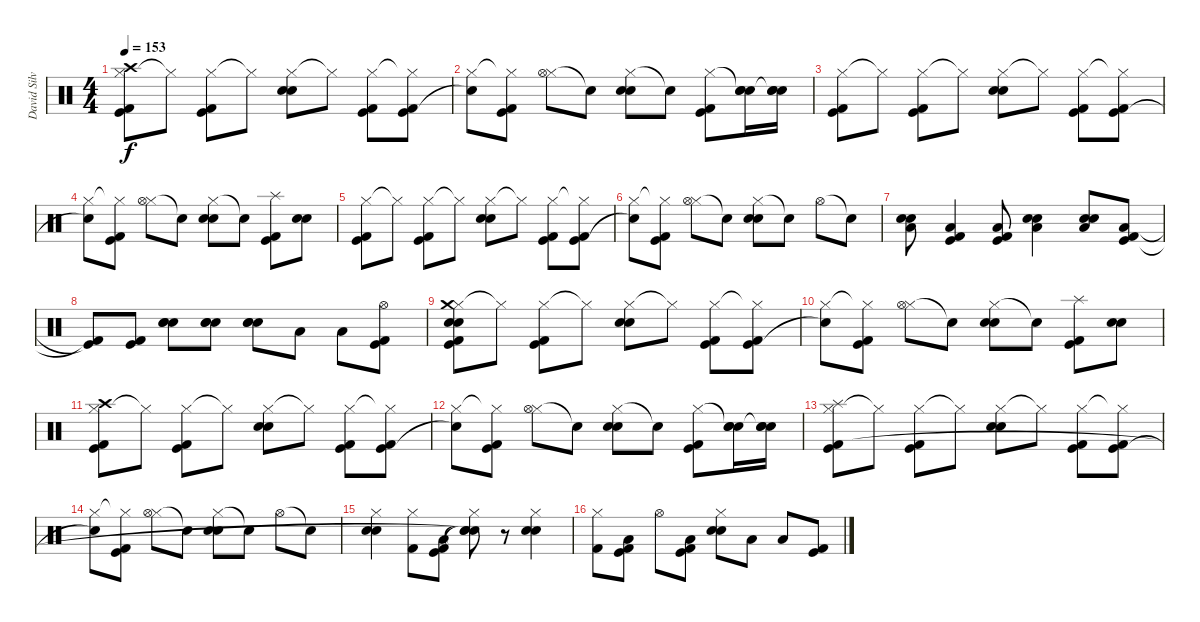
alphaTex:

\track ("David Silveria" "David Silv") {instrument percussion}
\staff {score}
\articulation defaults
\ts (4 4)
\tempo 153
\clef neutral
\ks c
("Hi-Hat (closed)" "Kick (hit)" "Crash high (hit)" "Kick (hit) 2").8{dy f} "Hi-Hat (closed)"{t}.8 ("Hi-Hat (closed)" "Kick (hit)" "Kick (hit) 2").8 "Hi-Hat (closed)"{t}.8 ("Hi-Hat (closed)" "Electric Snare (hit)" "Snare (hit) 2").8 "Hi-Hat (closed)"{t}.8 ("Hi-Hat (closed)" "Kick (hit)" "Kick (hit) 2").8 ("Hi-Hat (closed)"{t} "Kick (hit)" "Kick (hit) 2").8 |
("Hi-Hat (closed)" "Snare (hit)"{t}).8 ("Hi-Hat (closed)"{t} "Kick (hit)" "Kick (hit) 2").8 ("Hi-Hat (closed)" "Hi-Hat (open)").8 "Electric Snare (hit)"{t}.8 ("Hi-Hat (closed)" "Electric Snare (hit)" "Snare (hit) 2").8 "Snare (hit)"{t}.8 ("Hi-Hat (closed)" "Kick (hit)" "Kick (hit) 2").8 ("Snare (hit)"{t} "Electric Snare (hit)" "Snare (hit) 2").16 ("Snare (hit)"{t} "Electric Snare (hit)" "Snare (hit) 2").16 |
("Hi-Hat (closed)" "Kick (hit)" "Kick (hit) 2").8 "Hi-Hat (closed)"{t}.8 ("Hi-Hat (closed)" "Kick (hit)" "Kick (hit) 2").8 "Hi-Hat (closed)"{t}.8 ("Hi-Hat (closed)" "Electric Snare (hit)" "Snare (hit) 2").8 "Hi-Hat (closed)"{t}.8 ("Hi-Hat (closed)" "Kick (hit)" "Kick (hit) 2").8 ("Hi-Hat (closed)"{t} "Kick (hit)" "Kick (hit) 2").8 |
("Hi-Hat (closed)" "Snare (hit)"{t}).8 ("Hi-Hat (closed)"{t} "Kick (hit)" "Kick (hit) 2").8 ("Hi-Hat (closed)" "Hi-Hat (open)").8 "Electric Snare (hit)"{t}.8 ("Hi-Hat (closed)" "Electric Snare (hit)" "Snare (hit) 2").8 "Snare (hit)"{t}.8 ("Splash (hit)" "Kick (hit)" "Kick (hit) 2").8 ("Electric Snare (hit)" "Snare (hit) 2").8 |
("Hi-Hat (closed)" "Kick (hit)" "Kick (hit) 2").8 "Hi-Hat (closed)"{t}.8 ("Hi-Hat (closed)" "Kick (hit)" "Kick (hit) 2").8 "Hi-Hat (closed)"{t}.8 ("Hi-Hat (closed)" "Electric Snare (hit)" "Snare (hit) 2").8 "Hi-Hat (closed)"{t}.8 ("Hi-Hat (closed)" "Kick (hit)" "Kick (hit) 2").8 ("Hi-Hat (closed)"{t} "Kick (hit)" "Kick (hit) 2").8 |
("Hi-Hat (closed)" "Snare (hit)"{t}).8 ("Hi-Hat (closed)"{t} "Kick (hit)" "Kick (hit) 2").8 ("Hi-Hat (closed)" "Hi-Hat (open)").8 "Electric Snare (hit)"{t}.8 ("Hi-Hat (closed)" "Electric Snare (hit)" "Snare (hit) 2").8 "Snare (hit)"{t}.8 "Hi-Hat (open)".8 "Electric Snare (hit)"{t}.8 |
("Low Tom (hit)" "Electric Snare (hit)" "Snare (hit) 2").8 ("Low Floor Tom (hit)" "Kick (hit)" "Kick (hit) 2").4 ("Low Floor Tom (hit)" "Kick (hit)" "Kick (hit) 2").8 ("Low Tom (hit)" "Electric Snare (hit)" "Snare (hit) 2").4 ("Low Tom (hit)" "Electric Snare (hit)" "Snare (hit) 2").8 ("Low Floor Tom (hit)" "Kick (hit)" "Kick (hit) 2").8 |
("Kick (hit)"{t} "Kick (hit) 2"{t}).8 ("Kick (hit)" "Kick (hit) 2").8 ("Snare (hit) 2" "Electric Snare (hit)" "Snare (hit) 2").8 ("Snare (hit) 2" "Electric Snare (hit)" "Snare (hit) 2").8 ("Snare (hit) 2" "Electric Snare (hit)" "Snare (hit) 2").8 "Low Tom (hit)".8 "Low Floor Tom (hit)".8 ("Hi-Hat (open)" "Kick (hit) 2" "Kick (hit)").8 |
("Hi-Hat (closed)" "Kick (hit)" "Crash medium (hit)" "Kick (hit) 2" "Electric Snare (hit)" "Snare (hit) 2").8 "Hi-Hat (closed)"{t}.8 ("Hi-Hat (closed)" "Kick (hit)" "Kick (hit) 2").8 "Hi-Hat (closed)"{t}.8 ("Hi-Hat (closed)" "Electric Snare (hit)" "Snare (hit) 2").8 "Hi-Hat (closed)"{t}.8 ("Hi-Hat (closed)" "Kick (hit)" "Kick (hit) 2").8 ("Hi-Hat (closed)"{t} "Kick (hit)" "Kick (hit) 2").8 |
("Hi-Hat (closed)" "Snare (hit)"{t}).8 ("Hi-Hat (closed)"{t} "Kick (hit)" "Kick (hit) 2").8 ("Hi-Hat (closed)" "Hi-Hat (open)").8 "Electric Snare (hit)"{t}.8 ("Hi-Hat (closed)" "Electric Snare (hit)" "Snare (hit) 2").8 "Snare (hit)"{t}.8 ("Splash (hit)" "Kick (hit)" "Kick (hit) 2").8 ("Electric Snare (hit)" "Snare (hit) 2").8 |
("Hi-Hat (closed)" "Kick (hit)" "Crash high (hit)" "Kick (hit) 2").8 "Hi-Hat (closed)"{t}.8 ("Hi-Hat (closed)" "Kick (hit)" "Kick (hit) 2").8 "Hi-Hat (closed)"{t}.8 ("Hi-Hat (closed)" "Electric Snare (hit)" "Snare (hit) 2").8 "Hi-Hat (closed)"{t}.8 ("Hi-Hat (closed)" "Kick (hit)" "Kick (hit) 2").8 ("Hi-Hat (closed)"{t} "Kick (hit)" "Kick (hit) 2").8 |
("Hi-Hat (closed)" "Snare (hit)"{t}).8 ("Hi-Hat (closed)"{t} "Kick (hit)" "Kick (hit) 2").8 ("Hi-Hat (closed)" "Hi-Hat (open)").8 "Electric Snare (hit)"{t}.8 ("Hi-Hat (closed)" "Electric Snare (hit)" "Snare (hit) 2").8 "Snare (hit)"{t}.8 ("Hi-Hat (closed)" "Kick (hit)" "Kick (hit) 2").8 ("Snare (hit)"{t} "Electric Snare (hit)" "Snare (hit) 2").16 ("Snare (hit)"{t} "Electric Snare (hit)" "Snare (hit) 2").16 |
("Hi-Hat (closed)" "Kick (hit)" "Splash (hit)" "Kick (hit) 2").8 "Hi-Hat (closed)"{t}.8 ("Hi-Hat (closed)" "Kick (hit)" "Kick (hit) 2").8 "Hi-Hat (closed)"{t}.8 ("Hi-Hat (closed)" "Electric Snare (hit)" "Snare (hit) 2").8 "Hi-Hat (closed)"{t}.8 ("Hi-Hat (closed)" "Kick (hit)" "Kick (hit) 2").8 ("Hi-Hat (closed)"{t} "Kick (hit)" "Kick (hit) 2").8 |
("Hi-Hat (closed)" "Snare (hit)"{t}).8 ("Hi-Hat (closed)"{t} "Kick (hit)" "Kick (hit) 2").8 ("Hi-Hat (closed)" "Hi-Hat (open)").8 "Electric Snare (hit)"{t}.8 ("Hi-Hat (closed)" "Electric Snare (hit)" "Snare (hit) 2").8 "Snare (hit)"{t}.8 "Hi-Hat (open)".8 "Electric Snare (hit)"{t}.8 |
("Hi-Hat (closed)" "Electric Snare (hit)" "Snare (hit) 2").4 ("Hi-Hat (closed)" "Kick (hit) 2").8 ("Low Floor Tom (hit)" "Kick (hit) 2" "Kick (hit)").8 ("Hi-Hat (closed)" "Snare (hit)"{t} "Snare (hit)"{t} "Snare (hit)"{t}).8 r.8 ("Hi-Hat (closed)" "Electric Snare (hit)" "Snare (hit) 2").4 |
("Hi-Hat (closed)" "Kick (hit) 2").8 ("Kick (hit)" "Kick (hit) 2" "Low Floor Tom (hit)").8 "Hi-Hat (open)".8 ("Kick (hit) 2" "Low Floor Tom (hit)" "Kick (hit)").8 ("Hi-Hat (closed)" "Electric Snare (hit)" "Snare (hit) 2").8 "Low Tom (hit)".8 "Low Floor Tom (hit)".8 ("Kick (hit) 2" "Kick (hit)").8
